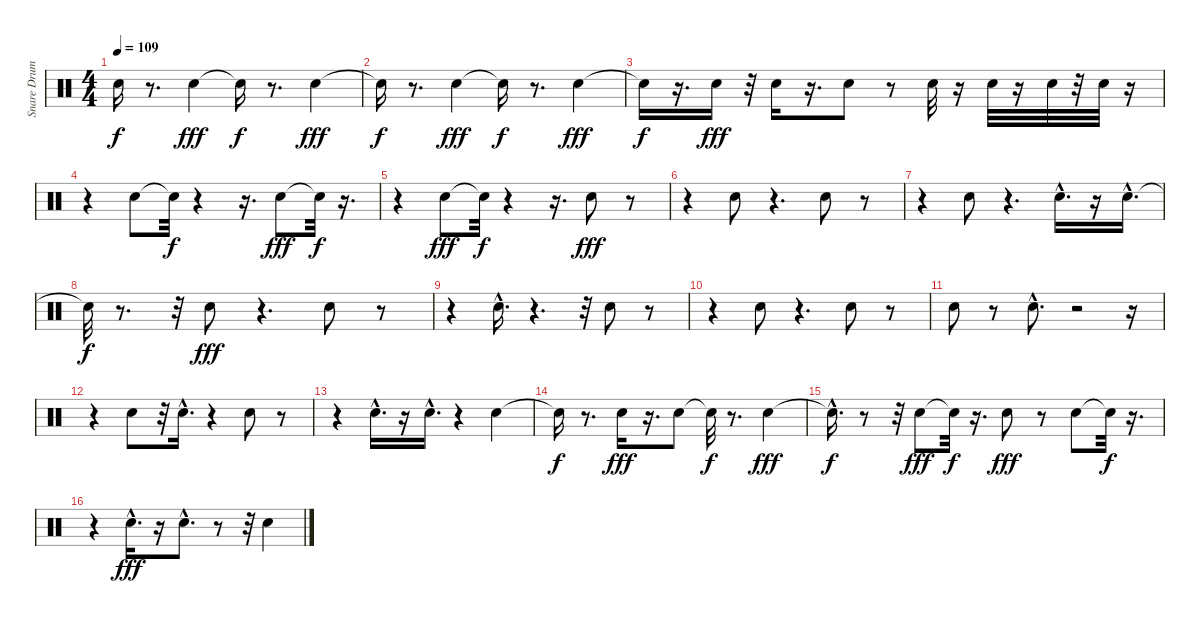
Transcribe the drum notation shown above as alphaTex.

\track ("Snare Drum      " "Snare Drum") {instrument percussion}
\staff {score}
\articulation defaults
\ts (4 4)
\tempo 109
\clef neutral
\ks c "Snare (hit)"{t}.16{dy f}
r.8{d} "Electric Snare (hit)".4{dy fff} "Snare (hit)"{t}.16{dy f} r.8{d} "Electric Snare (hit)".4{dy fff} |
"Snare (hit)"{t}.16{dy f} r.8{d} "Electric Snare (hit)".4{dy fff} "Snare (hit)"{t}.16{dy f} r.8{d} "Electric Snare (hit)".4{dy fff} |
"Snare (hit)"{t}.16{dy f} r.16{d} "Electric Snare (hit)".16{dy fff} r.32 "Electric Snare (hit)".16 r.16{d} "Electric Snare (hit)".8 r.8 "Electric Snare (hit)".32 r.16 "Electric Snare (hit)".32 r.16 "Electric Snare (hit)".32 r.32 "Electric Snare (hit)".32 r.16 |
r.4 "Electric Snare (hit)".8 "Snare (hit)"{t}.32{dy f} r.4 r.16{d} "Electric Snare (hit)".8{dy fff} "Snare (hit)"{t}.32{dy f} r.16{d} |
r.4 "Electric Snare (hit)".8{dy fff} "Snare (hit)"{t}.32{dy f} r.4 r.16{d} "Electric Snare (hit)".8{dy fff} r.8 |
r.4 "Electric Snare (hit)".8 r.4{d} "Electric Snare (hit)".8 r.8 |
r.4 "Electric Snare (hit)".8 r.4{d} "Electric Snare (hit)"{hac}.16{d} r.16 "Electric Snare (hit)"{hac}.16{d} |
"Snare (hit)"{t}.32{dy f} r.8{d} r.32 "Electric Snare (hit)".8{dy fff} r.4{d} "Electric Snare (hit)".8 r.8 |
r.4 "Electric Snare (hit)"{hac}.16{d} r.4{d} r.32 "Electric Snare (hit)".8 r.8 |
r.4 "Electric Snare (hit)".8 r.4{d} "Electric Snare (hit)".8 r.8 |
"Electric Snare (hit)".8 r.8 "Electric Snare (hit)"{hac}.8{d} r.2 r.16 |
r.4 "Electric Snare (hit)".8 r.32 "Electric Snare (hit)"{hac}.16{d} r.4 "Electric Snare (hit)".8 r.8 |
r.4 "Electric Snare (hit)"{hac}.16{d} r.16 "Electric Snare (hit)"{hac}.16{d} r.4 "Electric Snare (hit)".4 |
"Snare (hit)"{t}.16{dy f} r.8{d} "Electric Snare (hit)".16{dy fff} r.16{d} "Electric Snare (hit)".8 "Snare (hit)"{t}.32{dy f} r.8{d} "Electric Snare (hit)".4{dy fff} |
"Snare (hit)"{hac t}.16{d dy f} r.8 r.32 "Electric Snare (hit)".8{dy fff} "Snare (hit)"{t}.32{dy f} r.16{d} "Electric Snare (hit)".8{dy fff} r.8 "Electric Snare (hit)".8 "Snare (hit)"{t}.32{dy f} r.16{d} |
r.4 "Electric Snare (hit)"{hac}.16{d dy fff} r.16 "Electric Snare (hit)"{hac}.8{d} r.8 r.32 "Electric Snare (hit)".4
